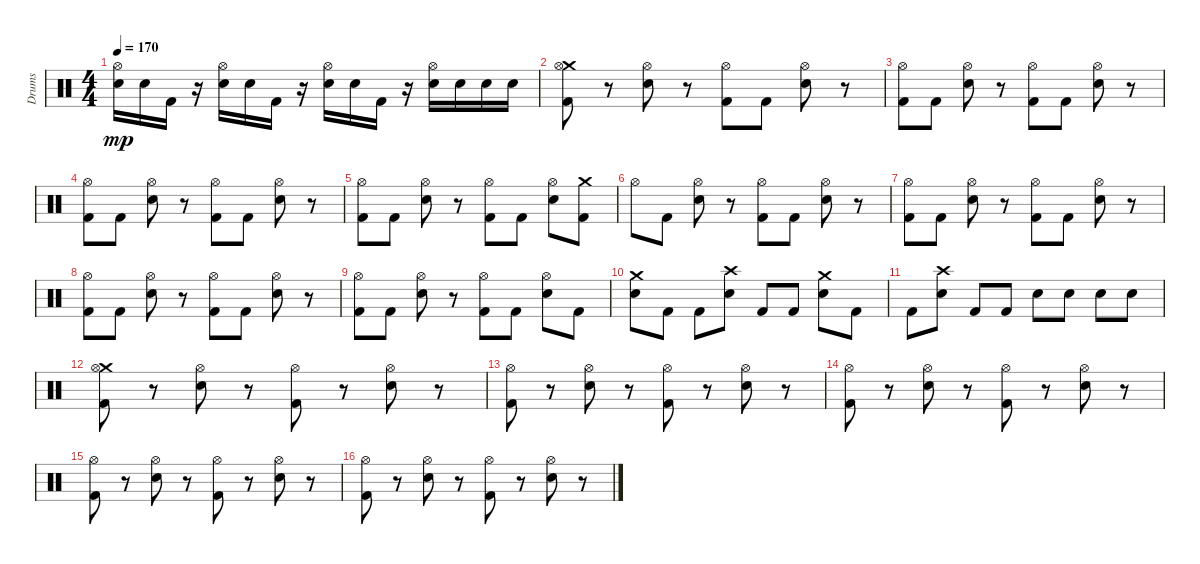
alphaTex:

\track ("Drums" "Drums") {instrument percussion}
\staff {score}
\articulation defaults
\ts (4 4)
\tempo 170
\clef neutral
\ks c
("Electric Snare (hit)" "Hi-Hat (open)").16{dy mp} "Electric Snare (hit)".16 "Kick (hit) 2".16 r.16 ("Electric Snare (hit)" "Hi-Hat (open)").16 "Electric Snare (hit)".16 "Kick (hit) 2".16 r.16 ("Electric Snare (hit)" "Hi-Hat (open)").16 "Electric Snare (hit)".16 "Kick (hit) 2".16 r.16 ("Hi-Hat (open)" "Electric Snare (hit)").16 "Electric Snare (hit)".16 "Electric Snare (hit)".16 "Electric Snare (hit)".16 |
("Crash medium (hit)" "Kick (hit) 2" "Hi-Hat (open)").8 r.8 ("Hi-Hat (open)" "Electric Snare (hit)").8 r.8 ("Hi-Hat (open)" "Kick (hit) 2").8 "Kick (hit) 2".8 ("Hi-Hat (open)" "Electric Snare (hit)").8 r.8 |
("Kick (hit) 2" "Hi-Hat (open)").8 "Kick (hit) 2".8 ("Electric Snare (hit)" "Hi-Hat (open)").8 r.8 ("Hi-Hat (open)" "Kick (hit) 2").8 "Kick (hit) 2".8 ("Hi-Hat (open)" "Electric Snare (hit)").8 r.8 |
("Hi-Hat (open)" "Kick (hit) 2").8 "Kick (hit) 2".8 ("Electric Snare (hit)" "Hi-Hat (open)").8 r.8 ("Hi-Hat (open)" "Kick (hit) 2").8 "Kick (hit) 2".8 ("Hi-Hat (open)" "Electric Snare (hit)").8 r.8 |
("Kick (hit) 2" "Hi-Hat (open)").8 "Kick (hit) 2".8 ("Hi-Hat (open)" "Electric Snare (hit)").8 r.8 ("Hi-Hat (open)" "Kick (hit) 2").8 "Kick (hit) 2".8 ("Hi-Hat (open)" "Electric Snare (hit)").8 ("Kick (hit) 2" "Crash medium (hit)").8 |
"Hi-Hat (open)".8 "Kick (hit) 2".8 ("Hi-Hat (open)" "Electric Snare (hit)").8 r.8 ("Kick (hit) 2" "Hi-Hat (open)").8 "Kick (hit) 2".8 ("Electric Snare (hit)" "Hi-Hat (open)").8 r.8 |
("Hi-Hat (open)" "Kick (hit) 2").8 "Kick (hit) 2".8 ("Hi-Hat (open)" "Electric Snare (hit)").8 r.8 ("Kick (hit) 2" "Hi-Hat (open)").8 "Kick (hit) 2".8 ("Hi-Hat (open)" "Electric Snare (hit)").8 r.8 |
("Hi-Hat (open)" "Kick (hit) 2").8 "Kick (hit) 2".8 ("Hi-Hat (open)" "Electric Snare (hit)").8 r.8 ("Kick (hit) 2" "Hi-Hat (open)").8 "Kick (hit) 2".8 ("Electric Snare (hit)" "Hi-Hat (open)").8 r.8 |
("Kick (hit) 2" "Hi-Hat (open)").8 "Kick (hit) 2".8 ("Hi-Hat (open)" "Electric Snare (hit)").8 r.8 ("Hi-Hat (open)" "Kick (hit) 2").8 "Kick (hit) 2".8 ("Electric Snare (hit)" "Hi-Hat (open)").8 "Kick (hit) 2".8 |
("Electric Snare (hit)" "Crash medium (hit)").8 "Kick (hit) 2".8 "Kick (hit) 2".8 ("Electric Snare (hit)" "Crash high (hit)").8 "Kick (hit) 2".8 "Kick (hit) 2".8 ("Crash medium (hit)" "Electric Snare (hit)").8 "Kick (hit) 2".8 |
"Kick (hit) 2".8 ("Crash high (hit)" "Electric Snare (hit)").8 "Kick (hit) 2".8 "Kick (hit) 2".8 "Electric Snare (hit)".8 "Electric Snare (hit)".8 "Electric Snare (hit)".8 "Electric Snare (hit)".8 |
("Crash medium (hit)" "Kick (hit) 2" "Hi-Hat (open)").8 r.8 ("Hi-Hat (open)" "Electric Snare (hit)").8 r.8 ("Kick (hit) 2" "Hi-Hat (open)").8 r.8 ("Electric Snare (hit)" "Hi-Hat (open)").8 r.8 |
("Hi-Hat (open)" "Kick (hit) 2").8 r.8 ("Hi-Hat (open)" "Electric Snare (hit)").8 r.8 ("Hi-Hat (open)" "Kick (hit) 2").8 r.8 ("Electric Snare (hit)" "Hi-Hat (open)").8 r.8 |
("Kick (hit) 2" "Hi-Hat (open)").8 r.8 ("Electric Snare (hit)" "Hi-Hat (open)").8 r.8 ("Kick (hit) 2" "Hi-Hat (open)").8 r.8 ("Electric Snare (hit)" "Hi-Hat (open)").8 r.8 |
("Kick (hit) 2" "Hi-Hat (open)").8 r.8 ("Hi-Hat (open)" "Electric Snare (hit)").8 r.8 ("Kick (hit) 2" "Hi-Hat (open)").8 r.8 ("Electric Snare (hit)" "Hi-Hat (open)").8 r.8 |
("Kick (hit) 2" "Hi-Hat (open)").8 r.8 ("Hi-Hat (open)" "Electric Snare (hit)").8 r.8 ("Kick (hit) 2" "Hi-Hat (open)").8 r.8 ("Hi-Hat (open)" "Electric Snare (hit)").8 r.8
